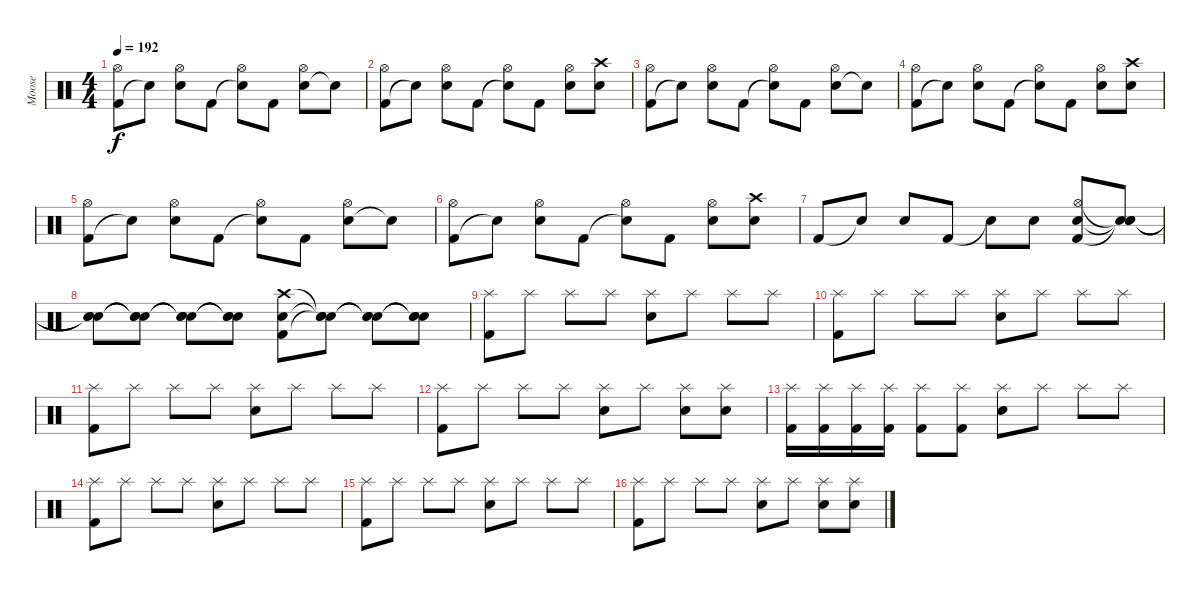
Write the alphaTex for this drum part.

\track ("Moose" "Moose") {instrument percussion}
\staff {score}
\articulation defaults
\ts (4 4)
\tempo 192
\clef neutral
\ks c
("Kick (hit) 2" "Hi-Hat (open)").8{dy f} "Snare (hit)"{t}.8 ("Electric Snare (hit)" "Hi-Hat (open)").8 "Kick (hit) 2".8 ("Snare (hit)"{t} "Hi-Hat (open)").8 "Kick (hit) 2".8 ("Electric Snare (hit)" "Hi-Hat (open)").8 "Electric Snare (hit)"{t}.8 |
("Kick (hit) 2" "Hi-Hat (open)").8 "Snare (hit)"{t}.8 ("Electric Snare (hit)" "Hi-Hat (open)").8 "Kick (hit) 2".8 ("Snare (hit)"{t} "Hi-Hat (open)").8 "Kick (hit) 2".8 ("Electric Snare (hit)" "Hi-Hat (open)").8 ("Electric Snare (hit)" "Crash high (hit)").8 |
("Kick (hit) 2" "Hi-Hat (open)").8 "Snare (hit)"{t}.8 ("Electric Snare (hit)" "Hi-Hat (open)").8 "Kick (hit) 2".8 ("Snare (hit)"{t} "Hi-Hat (open)").8 "Kick (hit) 2".8 ("Electric Snare (hit)" "Hi-Hat (open)").8 "Electric Snare (hit)"{t}.8 |
("Kick (hit) 2" "Hi-Hat (open)").8 "Snare (hit)"{t}.8 ("Electric Snare (hit)" "Hi-Hat (open)").8 "Kick (hit) 2".8 ("Snare (hit)"{t} "Hi-Hat (open)").8 "Kick (hit) 2".8 ("Electric Snare (hit)" "Hi-Hat (open)").8 ("Electric Snare (hit)" "Crash high (hit)").8 |
("Kick (hit) 2" "Hi-Hat (open)").8 "Snare (hit)"{t}.8 ("Electric Snare (hit)" "Hi-Hat (open)").8 "Kick (hit) 2".8 ("Snare (hit)"{t} "Hi-Hat (open)").8 "Kick (hit) 2".8 ("Electric Snare (hit)" "Hi-Hat (open)").8 "Electric Snare (hit)"{t}.8 |
("Kick (hit) 2" "Hi-Hat (open)").8 "Snare (hit)"{t}.8 ("Electric Snare (hit)" "Hi-Hat (open)").8 "Kick (hit) 2".8 ("Snare (hit)"{t} "Hi-Hat (open)").8 "Kick (hit) 2".8 ("Electric Snare (hit)" "Hi-Hat (open)").8 ("Electric Snare (hit)" "Crash high (hit)").8 |
"Kick (hit) 2".8 "Snare (hit)"{t}.8 "Electric Snare (hit)".8 "Kick (hit) 2".8 "Snare (hit)"{t}.8 "Electric Snare (hit)".8 ("Kick (hit) 2" "Snare (hit) 2" "Hi-Hat (open)").8 ("Snare (hit)"{t} "Snare (hit)"{t} "Snare (hit)"{t}).8 |
("Snare (hit)"{t} "Snare (hit)"{t} "Snare (hit)"{t}).8 ("Snare (hit)"{t} "Snare (hit)"{t} "Snare (hit)"{t}).8 ("Snare (hit)"{t} "Snare (hit)"{t} "Snare (hit)"{t}).8 ("Snare (hit)"{t} "Snare (hit)"{t} "Snare (hit)"{t}).8 ("Kick (hit) 2" "Electric Snare (hit)" "Crash high (hit)").8 ("Snare (hit)"{t} "Snare (hit)"{t} "Snare (hit)"{t}).8 ("Snare (hit)"{t} "Snare (hit)"{t} "Snare (hit)"{t}).8 ("Snare (hit)"{t} "Snare (hit)"{t} "Snare (hit)"{t}).8 |
("Splash (hit)" "Kick (hit) 2").8 "Splash (hit)".8 "Splash (hit)".8 "Splash (hit)".8 ("Splash (hit)" "Electric Snare (hit)").8 "Splash (hit)".8 "Splash (hit)".8 "Splash (hit)".8 |
("Splash (hit)" "Kick (hit) 2").8 "Splash (hit)".8 "Splash (hit)".8 "Splash (hit)".8 ("Splash (hit)" "Electric Snare (hit)").8 "Splash (hit)".8 "Splash (hit)".8 "Splash (hit)".8 |
("Splash (hit)" "Kick (hit) 2").8 "Splash (hit)".8 "Splash (hit)".8 "Splash (hit)".8 ("Splash (hit)" "Electric Snare (hit)").8 "Splash (hit)".8 "Splash (hit)".8 "Splash (hit)".8 |
("Splash (hit)" "Kick (hit) 2").8 "Splash (hit)".8 "Splash (hit)".8 "Splash (hit)".8 ("Splash (hit)" "Electric Snare (hit)").8 "Splash (hit)".8 ("Splash (hit)" "Electric Snare (hit)").8 ("Splash (hit)" "Electric Snare (hit)").8 |
("Splash (hit)" "Kick (hit) 2").16 ("Splash (hit)" "Kick (hit) 2").16 ("Splash (hit)" "Kick (hit) 2").16 ("Splash (hit)" "Kick (hit) 2").16 ("Splash (hit)" "Kick (hit) 2").8 ("Splash (hit)" "Kick (hit) 2").8 ("Splash (hit)" "Electric Snare (hit)").8 "Splash (hit)".8 "Splash (hit)".8 "Splash (hit)".8 |
("Splash (hit)" "Kick (hit) 2").8 "Splash (hit)".8 "Splash (hit)".8 "Splash (hit)".8 ("Splash (hit)" "Electric Snare (hit)").8 "Splash (hit)".8 "Splash (hit)".8 "Splash (hit)".8 |
("Splash (hit)" "Kick (hit) 2").8 "Splash (hit)".8 "Splash (hit)".8 "Splash (hit)".8 ("Splash (hit)" "Electric Snare (hit)").8 "Splash (hit)".8 "Splash (hit)".8 "Splash (hit)".8 |
("Splash (hit)" "Kick (hit) 2").8 "Splash (hit)".8 "Splash (hit)".8 "Splash (hit)".8 ("Splash (hit)" "Electric Snare (hit)").8 "Splash (hit)".8 ("Splash (hit)" "Electric Snare (hit)").8 ("Splash (hit)" "Electric Snare (hit)").8
